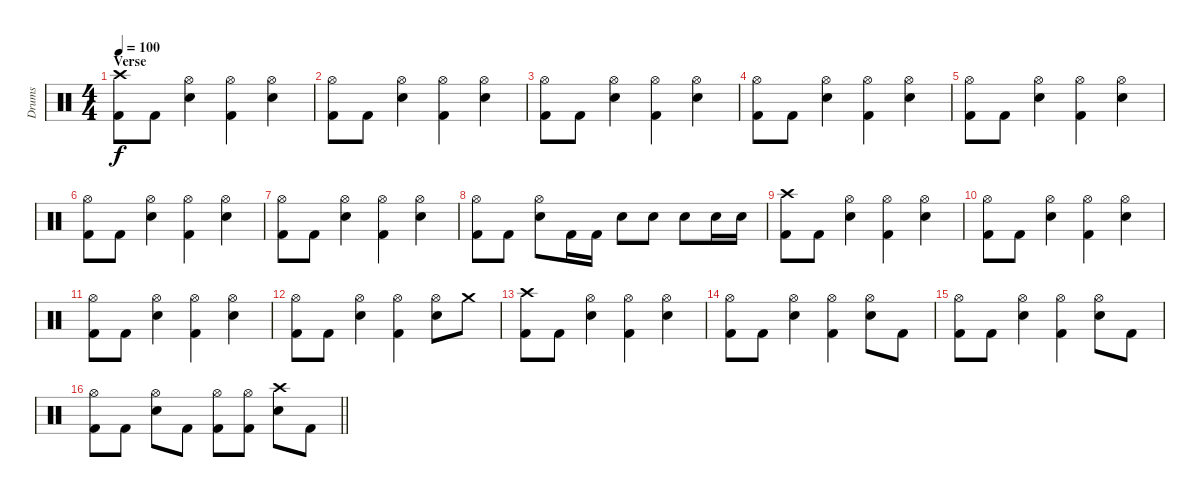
\track ("Drums" "Drums") {instrument percussion}
\staff {score}
\articulation defaults
\ts (4 4)
\section ("" "Verse")
\tempo 100
\clef neutral
\ks c
("Kick (hit) 2" "Crash high (hit)").8{dy f} "Kick (hit) 2".8 ("Snare (hit) 2" "Hi-Hat (open)").4 ("Kick (hit) 2" "Hi-Hat (open)").4 ("Snare (hit) 2" "Hi-Hat (open)").4 |
("Kick (hit) 2" "Hi-Hat (open)").8 "Kick (hit) 2".8 ("Snare (hit) 2" "Hi-Hat (open)").4 ("Kick (hit) 2" "Hi-Hat (open)").4 ("Snare (hit) 2" "Hi-Hat (open)").4 |
("Kick (hit) 2" "Hi-Hat (open)").8 "Kick (hit) 2".8 ("Snare (hit) 2" "Hi-Hat (open)").4 ("Kick (hit) 2" "Hi-Hat (open)").4 ("Snare (hit) 2" "Hi-Hat (open)").4 |
("Kick (hit) 2" "Hi-Hat (open)").8 "Kick (hit) 2".8 ("Snare (hit) 2" "Hi-Hat (open)").4 ("Kick (hit) 2" "Hi-Hat (open)").4 ("Snare (hit) 2" "Hi-Hat (open)").4 |
("Kick (hit) 2" "Hi-Hat (open)").8 "Kick (hit) 2".8 ("Snare (hit) 2" "Hi-Hat (open)").4 ("Kick (hit) 2" "Hi-Hat (open)").4 ("Snare (hit) 2" "Hi-Hat (open)").4 |
("Kick (hit) 2" "Hi-Hat (open)").8 "Kick (hit) 2".8 ("Snare (hit) 2" "Hi-Hat (open)").4 ("Kick (hit) 2" "Hi-Hat (open)").4 ("Snare (hit) 2" "Hi-Hat (open)").4 |
("Kick (hit) 2" "Hi-Hat (open)").8 "Kick (hit) 2".8 ("Snare (hit) 2" "Hi-Hat (open)").4 ("Kick (hit) 2" "Hi-Hat (open)").4 ("Snare (hit) 2" "Hi-Hat (open)").4 |
("Kick (hit) 2" "Hi-Hat (open)").8 "Kick (hit) 2".8 ("Snare (hit) 2" "Hi-Hat (open)").8 "Kick (hit) 2".16 "Kick (hit) 2".16 "Snare (hit) 2".8 "Snare (hit) 2".8 "Snare (hit) 2".8 "Snare (hit) 2".16 "Snare (hit) 2".16 |
("Kick (hit) 2" "Crash high (hit)").8 "Kick (hit) 2".8 ("Snare (hit) 2" "Hi-Hat (open)").4 ("Kick (hit) 2" "Hi-Hat (open)").4 ("Snare (hit) 2" "Hi-Hat (open)").4 |
("Kick (hit) 2" "Hi-Hat (open)").8 "Kick (hit) 2".8 ("Snare (hit) 2" "Hi-Hat (open)").4 ("Kick (hit) 2" "Hi-Hat (open)").4 ("Snare (hit) 2" "Hi-Hat (open)").4 |
("Kick (hit) 2" "Hi-Hat (open)").8 "Kick (hit) 2".8 ("Snare (hit) 2" "Hi-Hat (open)").4 ("Kick (hit) 2" "Hi-Hat (open)").4 ("Snare (hit) 2" "Hi-Hat (open)").4 |
("Kick (hit) 2" "Hi-Hat (open)").8 "Kick (hit) 2".8 ("Snare (hit) 2" "Hi-Hat (open)").4 ("Kick (hit) 2" "Hi-Hat (open)").4 ("Snare (hit) 2" "Hi-Hat (open)").8 "Crash medium (hit)".8 |
("Kick (hit) 2" "Crash high (hit)").8 "Kick (hit) 2".8 ("Snare (hit) 2" "Hi-Hat (open)").4 ("Kick (hit) 2" "Hi-Hat (open)").4 ("Snare (hit) 2" "Hi-Hat (open)").4 |
("Kick (hit) 2" "Hi-Hat (open)").8 "Kick (hit) 2".8 ("Snare (hit) 2" "Hi-Hat (open)").4 ("Kick (hit) 2" "Hi-Hat (open)").4 ("Snare (hit) 2" "Hi-Hat (open)").8 "Kick (hit) 2".8 |
("Kick (hit) 2" "Hi-Hat (open)").8 "Kick (hit) 2".8 ("Snare (hit) 2" "Hi-Hat (open)").4 ("Kick (hit) 2" "Hi-Hat (open)").4 ("Snare (hit) 2" "Hi-Hat (open)").8 "Kick (hit) 2".8 |
\barLineRight lightlight
("Kick (hit) 2" "Hi-Hat (open)").8 "Kick (hit) 2".8 ("Snare (hit) 2" "Hi-Hat (open)").8 "Kick (hit) 2".8 ("Kick (hit) 2" "Hi-Hat (open)").8 ("Kick (hit) 2" "Hi-Hat (open)").8 ("Snare (hit) 2" "Crash high (hit)").8 "Kick (hit) 2".8
